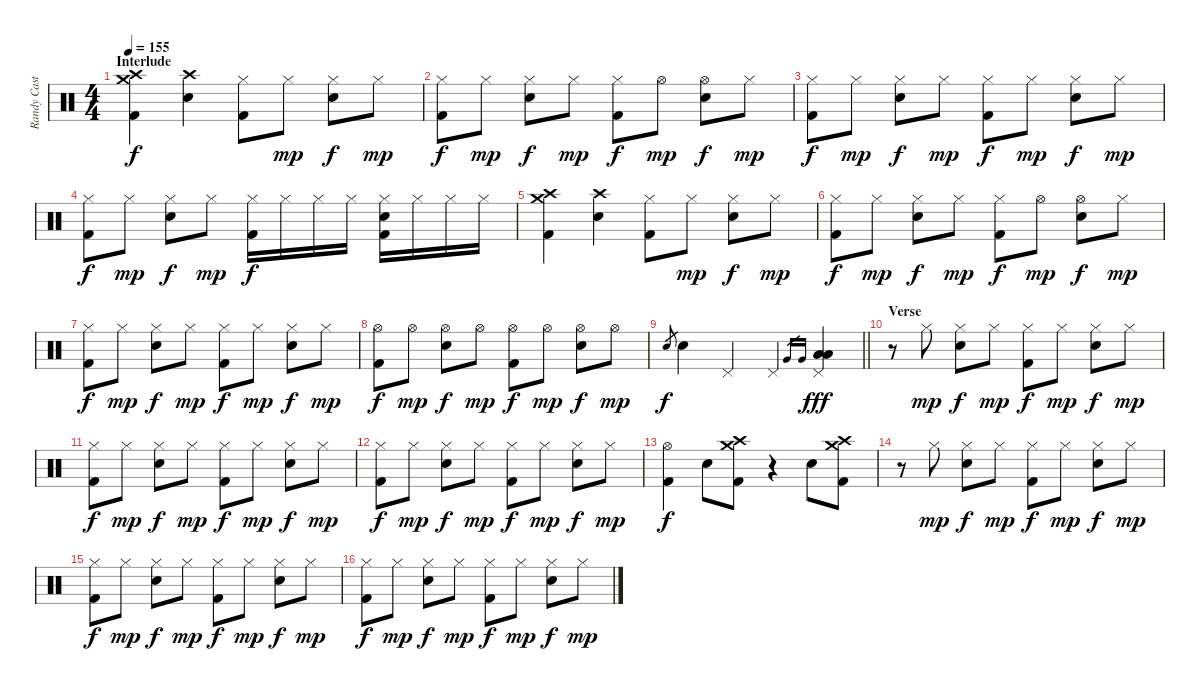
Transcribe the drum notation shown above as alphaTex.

\track ("Randy Castillo - Drums" "Randy Cast") {instrument percussion}
\staff {score}
\articulation defaults
\ts (4 4)
\section ("" "Interlude")
\tempo 155
\clef neutral
\ks c
("Crash medium (hit)" "Crash high (hit)" "Kick (hit) 2").4{dy f} ("Crash high (hit)" "Snare (hit) 2").4 ("Hi-Hat (closed)" "Kick (hit) 2").8 "Hi-Hat (closed)".8{dy mp} ("Hi-Hat (closed)" "Snare (hit) 2").8{dy f} "Hi-Hat (closed)".8{dy mp} |
("Hi-Hat (closed)" "Kick (hit) 2").8{dy f} "Hi-Hat (closed)".8{dy mp} ("Hi-Hat (closed)" "Snare (hit) 2").8{dy f} "Hi-Hat (closed)".8{dy mp} ("Hi-Hat (closed)" "Kick (hit) 2").8{dy f} "Hi-Hat (open)".8{dy mp} ("Hi-Hat (open)" "Snare (hit) 2").8{dy f} "Hi-Hat (closed)".8{dy mp} |
("Hi-Hat (closed)" "Kick (hit) 2").8{dy f} "Hi-Hat (closed)".8{dy mp} ("Hi-Hat (closed)" "Snare (hit) 2").8{dy f} "Hi-Hat (closed)".8{dy mp} ("Hi-Hat (closed)" "Kick (hit) 2").8{dy f} "Hi-Hat (closed)".8{dy mp} ("Hi-Hat (closed)" "Snare (hit) 2").8{dy f} "Hi-Hat (closed)".8{dy mp} |
("Hi-Hat (closed)" "Kick (hit) 2").8{dy f} "Hi-Hat (closed)".8{dy mp} ("Hi-Hat (closed)" "Snare (hit) 2").8{dy f} "Hi-Hat (closed)".8{dy mp} ("Hi-Hat (closed)" "Kick (hit) 2").16{dy f} "Hi-Hat (closed)".16 "Hi-Hat (closed)".16 "Hi-Hat (closed)".16 ("Hi-Hat (closed)" "Snare (hit) 2" "Kick (hit) 2").16 "Hi-Hat (closed)".16 "Hi-Hat (closed)".16 "Hi-Hat (closed)".16 |
("Crash medium (hit)" "Crash high (hit)" "Kick (hit) 2").4 ("Crash high (hit)" "Snare (hit) 2").4 ("Hi-Hat (closed)" "Kick (hit) 2").8 "Hi-Hat (closed)".8{dy mp} ("Hi-Hat (closed)" "Snare (hit) 2").8{dy f} "Hi-Hat (closed)".8{dy mp} |
("Hi-Hat (closed)" "Kick (hit) 2").8{dy f} "Hi-Hat (closed)".8{dy mp} ("Hi-Hat (closed)" "Snare (hit) 2").8{dy f} "Hi-Hat (closed)".8{dy mp} ("Hi-Hat (closed)" "Kick (hit) 2").8{dy f} "Hi-Hat (open)".8{dy mp} ("Hi-Hat (open)" "Snare (hit) 2").8{dy f} "Hi-Hat (closed)".8{dy mp} |
("Hi-Hat (closed)" "Kick (hit) 2").8{dy f} "Hi-Hat (closed)".8{dy mp} ("Hi-Hat (closed)" "Snare (hit) 2").8{dy f} "Hi-Hat (closed)".8{dy mp} ("Hi-Hat (closed)" "Kick (hit) 2").8{dy f} "Hi-Hat (closed)".8{dy mp} ("Hi-Hat (closed)" "Snare (hit) 2").8{dy f} "Hi-Hat (closed)".8{dy mp} |
("Hi-Hat (open)" "Kick (hit) 2").8{dy f} "Hi-Hat (open)".8{dy mp} ("Hi-Hat (open)" "Snare (hit) 2").8{dy f} "Hi-Hat (open)".8{dy mp} ("Hi-Hat (open)" "Kick (hit) 2").8{dy f} "Hi-Hat (open)".8{dy mp} ("Hi-Hat (open)" "Snare (hit) 2").8{dy f} "Hi-Hat (open)".8{dy mp} |
\barLineRight lightlight "Snare (hit) 2".8{gr dy f} "Snare (hit) 2".4 "Pedal Hi-Hat (hit)".4 "Pedal Hi-Hat (hit)".4 "Very Low Tom (hit)".16{gr} "Very Low Tom (hit)".16{gr}
("Low Tom (hit)" "Low Tom (hit)" "Pedal Hi-Hat (hit)").4{dy fff} |
\section ("" "Verse")
r.8 "Hi-Hat (closed)".8{dy mp} ("Hi-Hat (closed)" "Snare (hit) 2").8{dy f} "Hi-Hat (closed)".8{dy mp} ("Hi-Hat (closed)" "Kick (hit) 2").8{dy f} "Hi-Hat (closed)".8{dy mp} ("Hi-Hat (closed)" "Snare (hit) 2").8{dy f} "Hi-Hat (closed)".8{dy mp} |
("Hi-Hat (closed)" "Kick (hit) 2").8{dy f} "Hi-Hat (closed)".8{dy mp} ("Hi-Hat (closed)" "Snare (hit) 2").8{dy f} "Hi-Hat (closed)".8{dy mp} ("Hi-Hat (closed)" "Kick (hit) 2").8{dy f} "Hi-Hat (closed)".8{dy mp} ("Hi-Hat (closed)" "Snare (hit) 2").8{dy f} "Hi-Hat (closed)".8{dy mp} |
("Hi-Hat (closed)" "Kick (hit) 2").8{dy f} "Hi-Hat (closed)".8{dy mp} ("Hi-Hat (closed)" "Snare (hit) 2").8{dy f} "Hi-Hat (closed)".8{dy mp} ("Hi-Hat (closed)" "Kick (hit) 2").8{dy f} "Hi-Hat (closed)".8{dy mp} ("Hi-Hat (closed)" "Snare (hit) 2").8{dy f} "Hi-Hat (closed)".8{dy mp} |
("Hi-Hat (open)" "Kick (hit) 2").4{dy f} "Snare (hit) 2".8 ("Crash medium (hit)" "Crash high (hit)" "Kick (hit) 2").8 r.4 "Snare (hit) 2".8 ("Crash medium (hit)" "Crash high (hit)" "Kick (hit) 2").8 |
r.8 "Hi-Hat (closed)".8{dy mp} ("Hi-Hat (closed)" "Snare (hit) 2").8{dy f} "Hi-Hat (closed)".8{dy mp} ("Hi-Hat (closed)" "Kick (hit) 2").8{dy f} "Hi-Hat (closed)".8{dy mp} ("Hi-Hat (closed)" "Snare (hit) 2").8{dy f} "Hi-Hat (closed)".8{dy mp} |
("Hi-Hat (closed)" "Kick (hit) 2").8{dy f} "Hi-Hat (closed)".8{dy mp} ("Hi-Hat (closed)" "Snare (hit) 2").8{dy f} "Hi-Hat (closed)".8{dy mp} ("Hi-Hat (closed)" "Kick (hit) 2").8{dy f} "Hi-Hat (closed)".8{dy mp} ("Hi-Hat (closed)" "Snare (hit) 2").8{dy f} "Hi-Hat (closed)".8{dy mp} |
("Hi-Hat (closed)" "Kick (hit) 2").8{dy f} "Hi-Hat (closed)".8{dy mp} ("Hi-Hat (closed)" "Snare (hit) 2").8{dy f} "Hi-Hat (closed)".8{dy mp} ("Hi-Hat (closed)" "Kick (hit) 2").8{dy f} "Hi-Hat (closed)".8{dy mp} ("Hi-Hat (closed)" "Snare (hit) 2").8{dy f} "Hi-Hat (closed)".8{dy mp}
